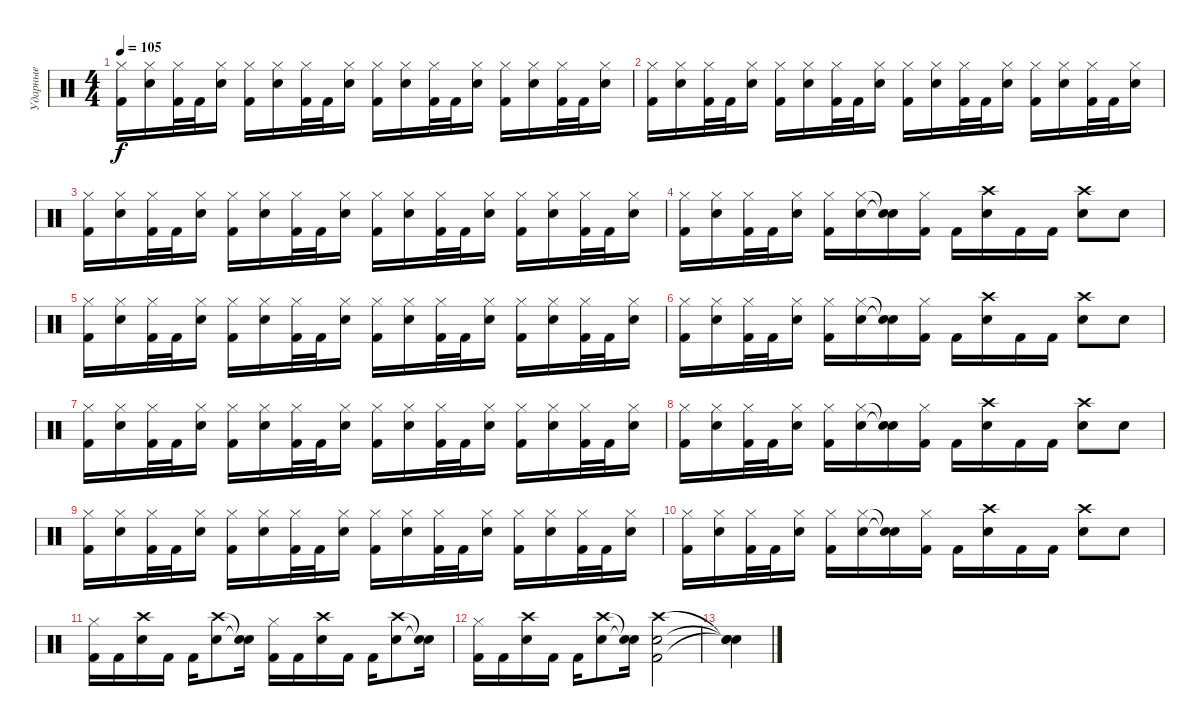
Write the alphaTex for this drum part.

\track ("Ударные" "Ударные") {instrument percussion}
\staff {score}
\articulation defaults
\ts (4 4)
\tempo 105
\clef neutral
\ks c
("Hi-Hat (closed)" "Kick (hit) 2").16{dy f} ("Hi-Hat (closed)" "Electric Snare (hit)").16 ("Hi-Hat (closed)" "Kick (hit) 2").32 "Kick (hit) 2".32 ("Hi-Hat (closed)" "Electric Snare (hit)").16 ("Hi-Hat (closed)" "Kick (hit) 2").16 ("Hi-Hat (closed)" "Electric Snare (hit)").16 ("Hi-Hat (closed)" "Kick (hit) 2").32 "Kick (hit) 2".32 ("Hi-Hat (closed)" "Electric Snare (hit)").16 ("Hi-Hat (closed)" "Kick (hit) 2").16 ("Hi-Hat (closed)" "Electric Snare (hit)").16 ("Hi-Hat (closed)" "Kick (hit) 2").32 "Kick (hit) 2".32 ("Hi-Hat (closed)" "Electric Snare (hit)").16 ("Hi-Hat (closed)" "Kick (hit) 2").16 ("Hi-Hat (closed)" "Electric Snare (hit)").16 ("Hi-Hat (closed)" "Kick (hit) 2").32 "Kick (hit) 2".32 ("Hi-Hat (closed)" "Electric Snare (hit)").16 |
("Hi-Hat (closed)" "Kick (hit) 2").16 ("Hi-Hat (closed)" "Electric Snare (hit)").16 ("Hi-Hat (closed)" "Kick (hit) 2").32 "Kick (hit) 2".32 ("Hi-Hat (closed)" "Electric Snare (hit)").16 ("Hi-Hat (closed)" "Kick (hit) 2").16 ("Hi-Hat (closed)" "Electric Snare (hit)").16 ("Hi-Hat (closed)" "Kick (hit) 2").32 "Kick (hit) 2".32 ("Hi-Hat (closed)" "Electric Snare (hit)").16 ("Hi-Hat (closed)" "Kick (hit) 2").16 ("Hi-Hat (closed)" "Electric Snare (hit)").16 ("Hi-Hat (closed)" "Kick (hit) 2").32 "Kick (hit) 2".32 ("Hi-Hat (closed)" "Electric Snare (hit)").16 ("Hi-Hat (closed)" "Kick (hit) 2").16 ("Hi-Hat (closed)" "Electric Snare (hit)").16 ("Hi-Hat (closed)" "Kick (hit) 2").32 "Kick (hit) 2".32 ("Hi-Hat (closed)" "Electric Snare (hit)").16 |
("Hi-Hat (closed)" "Kick (hit) 2").16 ("Hi-Hat (closed)" "Electric Snare (hit)").16 ("Hi-Hat (closed)" "Kick (hit) 2").32 "Kick (hit) 2".32 ("Hi-Hat (closed)" "Electric Snare (hit)").16 ("Hi-Hat (closed)" "Kick (hit) 2").16 ("Hi-Hat (closed)" "Electric Snare (hit)").16 ("Hi-Hat (closed)" "Kick (hit) 2").32 "Kick (hit) 2".32 ("Hi-Hat (closed)" "Electric Snare (hit)").16 ("Hi-Hat (closed)" "Kick (hit) 2").16 ("Hi-Hat (closed)" "Electric Snare (hit)").16 ("Hi-Hat (closed)" "Kick (hit) 2").32 "Kick (hit) 2".32 ("Hi-Hat (closed)" "Electric Snare (hit)").16 ("Hi-Hat (closed)" "Kick (hit) 2").16 ("Hi-Hat (closed)" "Electric Snare (hit)").16 ("Hi-Hat (closed)" "Kick (hit) 2").32 "Kick (hit) 2".32 ("Hi-Hat (closed)" "Electric Snare (hit)").16 |
("Hi-Hat (closed)" "Kick (hit) 2").16 ("Hi-Hat (closed)" "Electric Snare (hit)").16 ("Hi-Hat (closed)" "Kick (hit) 2").32 "Kick (hit) 2".32 ("Hi-Hat (closed)" "Electric Snare (hit)").16 ("Hi-Hat (closed)" "Kick (hit) 2").16 ("Hi-Hat (closed)" "Electric Snare (hit)").16 ("Snare (hit)"{t} "Snare (hit)"{t}).16 ("Hi-Hat (closed)" "Kick (hit) 2").16 "Kick (hit) 2".16 ("Crash high (hit)" "Electric Snare (hit)").16 "Kick (hit) 2".16 "Kick (hit) 2".16 ("Crash high (hit)" "Electric Snare (hit)").8 "Electric Snare (hit)".8 |
("Hi-Hat (closed)" "Kick (hit) 2").16 ("Hi-Hat (closed)" "Electric Snare (hit)").16 ("Hi-Hat (closed)" "Kick (hit) 2").32 "Kick (hit) 2".32 ("Hi-Hat (closed)" "Electric Snare (hit)").16 ("Hi-Hat (closed)" "Kick (hit) 2").16 ("Hi-Hat (closed)" "Electric Snare (hit)").16 ("Hi-Hat (closed)" "Kick (hit) 2").32 "Kick (hit) 2".32 ("Hi-Hat (closed)" "Electric Snare (hit)").16 ("Hi-Hat (closed)" "Kick (hit) 2").16 ("Hi-Hat (closed)" "Electric Snare (hit)").16 ("Hi-Hat (closed)" "Kick (hit) 2").32 "Kick (hit) 2".32 ("Hi-Hat (closed)" "Electric Snare (hit)").16 ("Hi-Hat (closed)" "Kick (hit) 2").16 ("Hi-Hat (closed)" "Electric Snare (hit)").16 ("Hi-Hat (closed)" "Kick (hit) 2").32 "Kick (hit) 2".32 ("Hi-Hat (closed)" "Electric Snare (hit)").16 |
("Hi-Hat (closed)" "Kick (hit) 2").16 ("Hi-Hat (closed)" "Electric Snare (hit)").16 ("Hi-Hat (closed)" "Kick (hit) 2").32 "Kick (hit) 2".32 ("Hi-Hat (closed)" "Electric Snare (hit)").16 ("Hi-Hat (closed)" "Kick (hit) 2").16 ("Hi-Hat (closed)" "Electric Snare (hit)").16 ("Snare (hit)"{t} "Snare (hit)"{t}).16 ("Hi-Hat (closed)" "Kick (hit) 2").16 "Kick (hit) 2".16 ("Crash high (hit)" "Electric Snare (hit)").16 "Kick (hit) 2".16 "Kick (hit) 2".16 ("Crash high (hit)" "Electric Snare (hit)").8 "Electric Snare (hit)".8 |
("Hi-Hat (closed)" "Kick (hit) 2").16 ("Hi-Hat (closed)" "Electric Snare (hit)").16 ("Hi-Hat (closed)" "Kick (hit) 2").32 "Kick (hit) 2".32 ("Hi-Hat (closed)" "Electric Snare (hit)").16 ("Hi-Hat (closed)" "Kick (hit) 2").16 ("Hi-Hat (closed)" "Electric Snare (hit)").16 ("Hi-Hat (closed)" "Kick (hit) 2").32 "Kick (hit) 2".32 ("Hi-Hat (closed)" "Electric Snare (hit)").16 ("Hi-Hat (closed)" "Kick (hit) 2").16 ("Hi-Hat (closed)" "Electric Snare (hit)").16 ("Hi-Hat (closed)" "Kick (hit) 2").32 "Kick (hit) 2".32 ("Hi-Hat (closed)" "Electric Snare (hit)").16 ("Hi-Hat (closed)" "Kick (hit) 2").16 ("Hi-Hat (closed)" "Electric Snare (hit)").16 ("Hi-Hat (closed)" "Kick (hit) 2").32 "Kick (hit) 2".32 ("Hi-Hat (closed)" "Electric Snare (hit)").16 |
("Hi-Hat (closed)" "Kick (hit) 2").16 ("Hi-Hat (closed)" "Electric Snare (hit)").16 ("Hi-Hat (closed)" "Kick (hit) 2").32 "Kick (hit) 2".32 ("Hi-Hat (closed)" "Electric Snare (hit)").16 ("Hi-Hat (closed)" "Kick (hit) 2").16 ("Hi-Hat (closed)" "Electric Snare (hit)").16 ("Snare (hit)"{t} "Snare (hit)"{t}).16 ("Hi-Hat (closed)" "Kick (hit) 2").16 "Kick (hit) 2".16 ("Crash high (hit)" "Electric Snare (hit)").16 "Kick (hit) 2".16 "Kick (hit) 2".16 ("Crash high (hit)" "Electric Snare (hit)").8 "Electric Snare (hit)".8 |
("Hi-Hat (closed)" "Kick (hit) 2").16 ("Hi-Hat (closed)" "Electric Snare (hit)").16 ("Hi-Hat (closed)" "Kick (hit) 2").32 "Kick (hit) 2".32 ("Hi-Hat (closed)" "Electric Snare (hit)").16 ("Hi-Hat (closed)" "Kick (hit) 2").16 ("Hi-Hat (closed)" "Electric Snare (hit)").16 ("Hi-Hat (closed)" "Kick (hit) 2").32 "Kick (hit) 2".32 ("Hi-Hat (closed)" "Electric Snare (hit)").16 ("Hi-Hat (closed)" "Kick (hit) 2").16 ("Hi-Hat (closed)" "Electric Snare (hit)").16 ("Hi-Hat (closed)" "Kick (hit) 2").32 "Kick (hit) 2".32 ("Hi-Hat (closed)" "Electric Snare (hit)").16 ("Hi-Hat (closed)" "Kick (hit) 2").16 ("Hi-Hat (closed)" "Electric Snare (hit)").16 ("Hi-Hat (closed)" "Kick (hit) 2").32 "Kick (hit) 2".32 ("Hi-Hat (closed)" "Electric Snare (hit)").16 |
("Hi-Hat (closed)" "Kick (hit) 2").16 ("Hi-Hat (closed)" "Electric Snare (hit)").16 ("Hi-Hat (closed)" "Kick (hit) 2").32 "Kick (hit) 2".32 ("Hi-Hat (closed)" "Electric Snare (hit)").16 ("Hi-Hat (closed)" "Kick (hit) 2").16 ("Hi-Hat (closed)" "Electric Snare (hit)").16 ("Snare (hit)"{t} "Snare (hit)"{t}).16 ("Hi-Hat (closed)" "Kick (hit) 2").16 "Kick (hit) 2".16 ("Crash high (hit)" "Electric Snare (hit)").16 "Kick (hit) 2".16 "Kick (hit) 2".16 ("Crash high (hit)" "Electric Snare (hit)").8 "Electric Snare (hit)".8 |
("Hi-Hat (closed)" "Kick (hit) 2").16 "Kick (hit) 2".16 ("Crash high (hit)" "Electric Snare (hit)").16 "Kick (hit) 2".16 "Kick (hit) 2".16 ("Crash high (hit)" "Electric Snare (hit)").8 ("Snare (hit)"{t} "Snare (hit)"{t}).16 ("Hi-Hat (closed)" "Kick (hit) 2").16 "Kick (hit) 2".16 ("Crash high (hit)" "Electric Snare (hit)").16 "Kick (hit) 2".16 "Kick (hit) 2".16 ("Crash high (hit)" "Electric Snare (hit)").8 ("Snare (hit)"{t} "Electric Snare (hit)"{t}).16 |
("Hi-Hat (closed)" "Kick (hit) 2").16 "Kick (hit) 2".16 ("Crash high (hit)" "Electric Snare (hit)").16 "Kick (hit) 2".16 "Kick (hit) 2".16 ("Crash high (hit)" "Electric Snare (hit)").8 ("Snare (hit)"{t} "Electric Snare (hit)"{t}).16 ("Crash high (hit)" "Electric Snare (hit)" "Kick (hit) 2").2 |
("Snare (hit)"{t} "Snare (hit)"{t} "Snare (hit)"{t}).4
